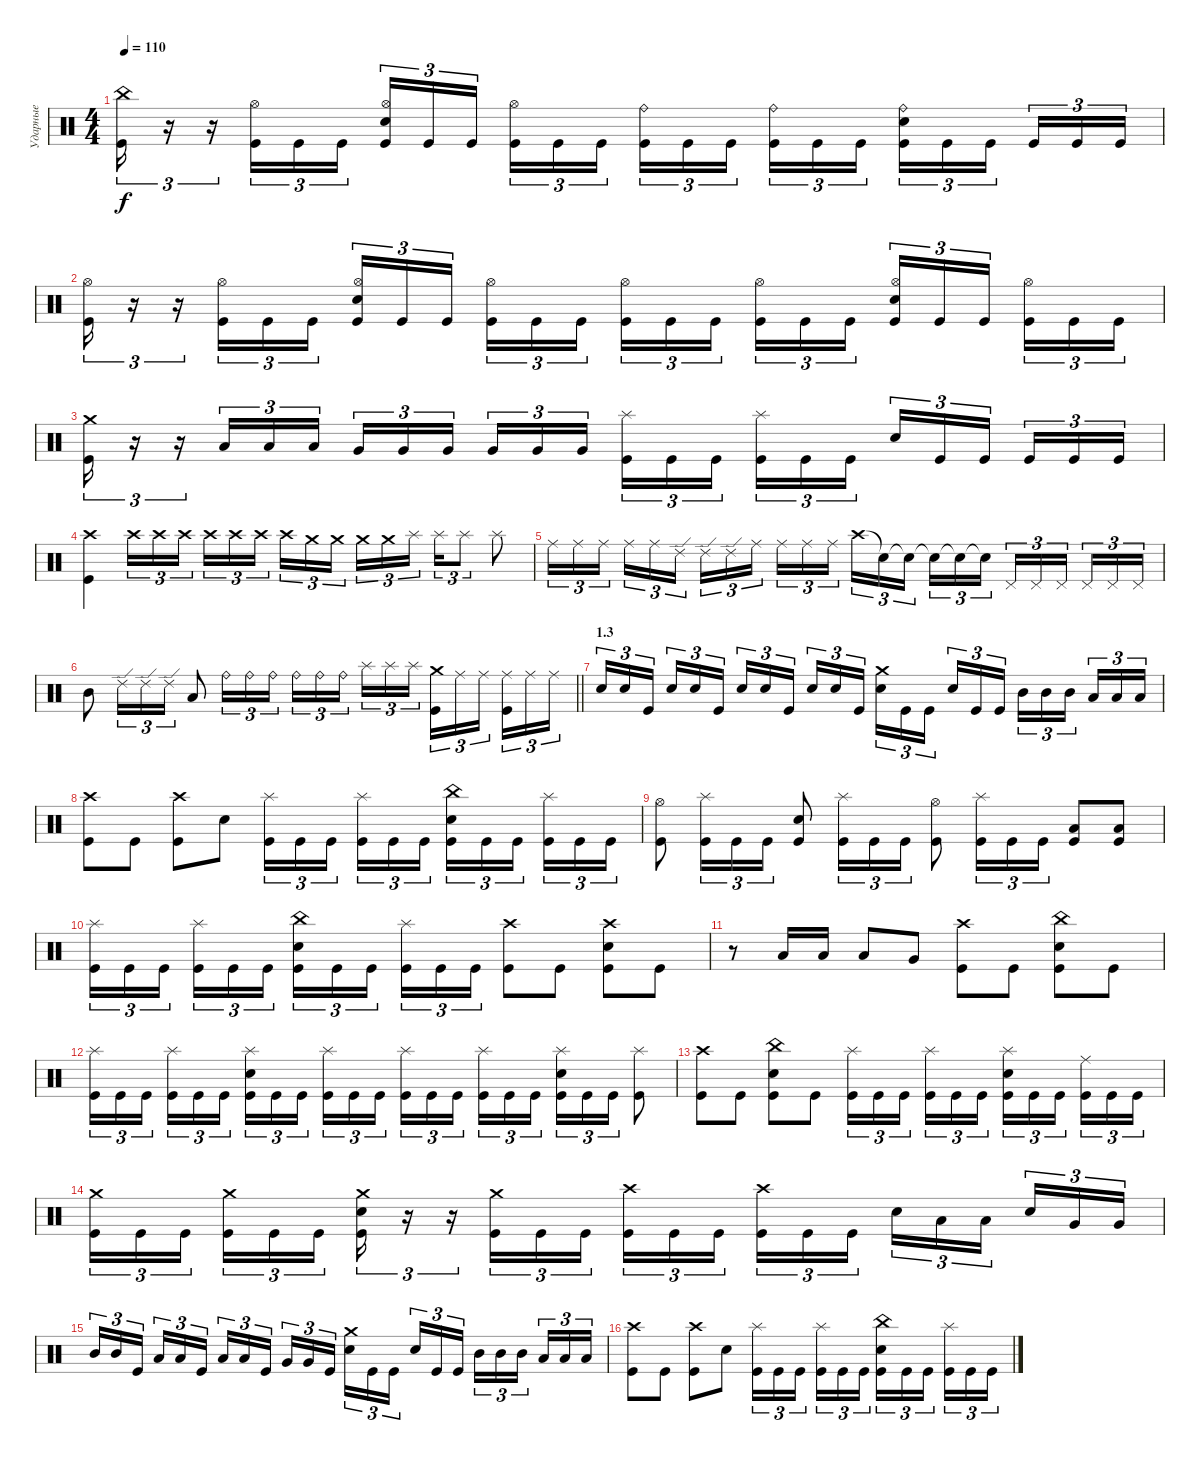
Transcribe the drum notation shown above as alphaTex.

\track ("Ударные" "Ударные") {instrument percussion}
\staff {score}
\articulation defaults
\ts (4 4)
\tempo 110
\clef neutral
\ks c
("China (hit)" "Kick (hit)").16{tu (3 2) dy f} r.16{tu (3 2)} r.16{tu (3 2)} ("Hi-Hat (open)" "Kick (hit)").16{tu (3 2)} "Kick (hit)".16{tu (3 2)} "Kick (hit)".16{tu (3 2)} ("Hi-Hat (open)" "Electric Snare (hit)" "Kick (hit)").16{tu (3 2)} "Kick (hit)".16{tu (3 2)} "Kick (hit)".16{tu (3 2) beam splitsecondary} ("Hi-Hat (open)" "Kick (hit)").16{tu (3 2)} "Kick (hit)".16{tu (3 2)} "Kick (hit)".16{tu (3 2)} ("Ride (bell)" "Kick (hit)").16{tu (3 2)} "Kick (hit)".16{tu (3 2)} "Kick (hit)".16{tu (3 2) beam splitsecondary} ("Ride (bell)" "Kick (hit)").16{tu (3 2)} "Kick (hit)".16{tu (3 2)} "Kick (hit)".16{tu (3 2)} ("Ride (bell)" "Electric Snare (hit)" "Kick (hit)").16{tu (3 2)} "Kick (hit)".16{tu (3 2)} "Kick (hit)".16{tu (3 2) beam splitsecondary} "Kick (hit)".16{tu (3 2)} "Kick (hit)".16{tu (3 2)} "Kick (hit)".16{tu (3 2)} |
("Hi-Hat (open)" "Kick (hit)").16{tu (3 2)} r.16{tu (3 2)} r.16{tu (3 2)} ("Hi-Hat (open)" "Kick (hit)").16{tu (3 2)} "Kick (hit)".16{tu (3 2)} "Kick (hit)".16{tu (3 2)} ("Hi-Hat (open)" "Electric Snare (hit)" "Kick (hit)").16{tu (3 2)} "Kick (hit)".16{tu (3 2)} "Kick (hit)".16{tu (3 2) beam splitsecondary} ("Hi-Hat (open)" "Kick (hit)").16{tu (3 2)} "Kick (hit)".16{tu (3 2)} "Kick (hit)".16{tu (3 2)} ("Hi-Hat (open)" "Kick (hit)").16{tu (3 2)} "Kick (hit)".16{tu (3 2)} "Kick (hit)".16{tu (3 2) beam splitsecondary} ("Hi-Hat (open)" "Kick (hit)").16{tu (3 2)} "Kick (hit)".16{tu (3 2)} "Kick (hit)".16{tu (3 2)} ("Hi-Hat (open)" "Electric Snare (hit)" "Kick (hit)").16{tu (3 2)} "Kick (hit)".16{tu (3 2)} "Kick (hit)".16{tu (3 2) beam splitsecondary} ("Hi-Hat (open)" "Kick (hit)").16{tu (3 2)} "Kick (hit)".16{tu (3 2)} "Kick (hit)".16{tu (3 2)} |
("Crash medium (hit)" "Kick (hit)").16{tu (3 2)} r.16{tu (3 2)} r.16{tu (3 2)} "Low Tom (hit)".16{tu (3 2)} "Low Tom (hit)".16{tu (3 2)} "Low Tom (hit)".16{tu (3 2)} "Very Low Tom (hit)".16{tu (3 2)} "Very Low Tom (hit)".16{tu (3 2)} "Very Low Tom (hit)".16{tu (3 2) beam splitsecondary} "Very Low Tom (hit)".16{tu (3 2)} "Very Low Tom (hit)".16{tu (3 2)} "Very Low Tom (hit)".16{tu (3 2)} ("Splash (hit)" "Kick (hit)").16{tu (3 2)} "Kick (hit)".16{tu (3 2)} "Kick (hit)".16{tu (3 2) beam splitsecondary} ("Splash (hit)" "Kick (hit)").16{tu (3 2)} "Kick (hit)".16{tu (3 2)} "Kick (hit)".16{tu (3 2)} "Electric Snare (hit)".16{tu (3 2)} "Kick (hit)".16{tu (3 2)} "Kick (hit)".16{tu (3 2) beam splitsecondary} "Kick (hit)".16{tu (3 2)} "Kick (hit)".16{tu (3 2)} "Kick (hit)".16{tu (3 2)} |
("Crash high (hit)" "Kick (hit)").4 "Crash high (hit)".16{tu (3 2)} "Crash high (hit)".16{tu (3 2)} "Crash high (hit)".16{tu (3 2) beam splitsecondary} "Crash high (hit)".16{tu (3 2)} "Crash high (hit)".16{tu (3 2)} "Crash high (hit)".16{tu (3 2)} "Crash high (hit)".16{tu (3 2)} "Crash medium (hit)".16{tu (3 2)} "Crash medium (hit)".16{tu (3 2) beam splitsecondary} "Crash medium (hit)".16{tu (3 2)} "Crash medium (hit)".16{tu (3 2)} "Splash (hit)".16{tu (3 2)} "Splash (hit)".16{tu (3 2)} "Splash (hit)".8{tu (3 2)} "Splash (hit)".8 |
"Ride (middle)".16{tu (3 2)} "Ride (middle)".16{tu (3 2)} "Ride (middle)".16{tu (3 2) beam splitsecondary} "Ride (middle)".16{tu (3 2)} "Ride (middle)".16{tu (3 2)} "Ride (edge) 2".16{tu (3 2)} "Ride (edge) 2".16{tu (3 2)} "Ride (edge) 2".16{tu (3 2)} "Ride (middle)".16{tu (3 2) beam splitsecondary} "Ride (middle)".16{tu (3 2)} "Ride (middle)".16{tu (3 2)} "Ride (middle)".16{tu (3 2)} "Crash high (hit)".16{tu (3 2)} "Snare (hit)"{t}.16{tu (3 2)} "Snare (hit)"{t}.16{tu (3 2) beam splitsecondary} "Snare (hit)"{t}.16{tu (3 2)} "Snare (hit)"{t}.16{tu (3 2)} "Snare (hit)"{t}.16{tu (3 2)} "Pedal Hi-Hat (hit)".16{tu (3 2)} "Pedal Hi-Hat (hit)".16{tu (3 2)} "Pedal Hi-Hat (hit)".16{tu (3 2) beam splitsecondary} "Pedal Hi-Hat (hit)".16{tu (3 2)} "Pedal Hi-Hat (hit)".16{tu (3 2)} "Pedal Hi-Hat (hit)".16{tu (3 2)} |
\barLineRight lightlight "Mid Tom (hit)".8 "Ride (edge) 2".16{tu (3 2)} "Ride (edge) 2".16{tu (3 2)} "Ride (edge) 2".16{tu (3 2)} "Low Tom (hit)".8 "Ride (bell)".16{tu (3 2)} "Ride (bell)".16{tu (3 2)} "Ride (bell)".16{tu (3 2)} "Ride (bell)".16{tu (3 2)} "Ride (bell)".16{tu (3 2)} "Ride (bell)".16{tu (3 2) beam splitsecondary} "Splash (hit)".16{tu (3 2)} "Splash (hit)".16{tu (3 2)} "Splash (hit)".16{tu (3 2)}
("Crash medium (hit)" "Kick (hit)").16{tu (3 2)} "Ride (middle)".16{tu (3 2)} "Ride (middle)".16{tu (3 2) beam splitsecondary} ("Ride (middle)" "Kick (hit)").16{tu (3 2)} "Ride (middle)".16{tu (3 2)} "Ride (middle)".16{tu (3 2)} |
\section ("" "1.3")
"Electric Snare (hit)".16{tu (3 2)} "Electric Snare (hit)".16{tu (3 2)} "Kick (hit)".16{tu (3 2) beam splitsecondary} "Electric Snare (hit)".16{tu (3 2)} "Electric Snare (hit)".16{tu (3 2)} "Kick (hit)".16{tu (3 2)} "Electric Snare (hit)".16{tu (3 2)} "Electric Snare (hit)".16{tu (3 2)} "Kick (hit)".16{tu (3 2) beam splitsecondary} "Electric Snare (hit)".16{tu (3 2)} "Electric Snare (hit)".16{tu (3 2)} "Kick (hit)".16{tu (3 2)} ("Crash medium (hit)" "Electric Snare (hit)").16{tu (3 2)} "Kick (hit)".16{tu (3 2)} "Kick (hit)".16{tu (3 2) beam splitsecondary} "Electric Snare (hit)".16{tu (3 2)} "Kick (hit)".16{tu (3 2)} "Kick (hit)".16{tu (3 2)} "Mid Tom (hit)".16{tu (3 2)} "Mid Tom (hit)".16{tu (3 2)} "Mid Tom (hit)".16{tu (3 2) beam splitsecondary} "Low Tom (hit)".16{tu (3 2)} "Low Tom (hit)".16{tu (3 2)} "Low Tom (hit)".16{tu (3 2)} |
("Crash high (hit)" "Kick (hit)").8 "Kick (hit)".8 ("Crash high (hit)" "Kick (hit)").8 "Electric Snare (hit)".8 ("Splash (hit)" "Kick (hit)").16{tu (3 2)} "Kick (hit)".16{tu (3 2)} "Kick (hit)".16{tu (3 2) beam splitsecondary} ("Splash (hit)" "Kick (hit)").16{tu (3 2)} "Kick (hit)".16{tu (3 2)} "Kick (hit)".16{tu (3 2)} ("China (hit)" "Electric Snare (hit)" "Kick (hit)").16{tu (3 2)} "Kick (hit)".16{tu (3 2)} "Kick (hit)".16{tu (3 2) beam splitsecondary} ("Splash (hit)" "Kick (hit)").16{tu (3 2)} "Kick (hit)".16{tu (3 2)} "Kick (hit)".16{tu (3 2)} |
("Hi-Hat (open)" "Kick (hit)").8 ("Splash (hit)" "Kick (hit)").16{tu (3 2)} "Kick (hit)".16{tu (3 2)} "Kick (hit)".16{tu (3 2)} ("Electric Snare (hit)" "Kick (hit)").8 ("Splash (hit)" "Kick (hit)").16{tu (3 2)} "Kick (hit)".16{tu (3 2)} "Kick (hit)".16{tu (3 2)} ("Hi-Hat (open)" "Kick (hit)").8 ("Splash (hit)" "Kick (hit)").16{tu (3 2)} "Kick (hit)".16{tu (3 2)} "Kick (hit)".16{tu (3 2)} ("Low Floor Tom (hit)" "Kick (hit)").8 ("Low Floor Tom (hit)" "Kick (hit)").8 |
("Splash (hit)" "Kick (hit)").16{tu (3 2)} "Kick (hit)".16{tu (3 2)} "Kick (hit)".16{tu (3 2) beam splitsecondary} ("Splash (hit)" "Kick (hit)").16{tu (3 2)} "Kick (hit)".16{tu (3 2)} "Kick (hit)".16{tu (3 2)} ("China (hit)" "Electric Snare (hit)" "Kick (hit)").16{tu (3 2)} "Kick (hit)".16{tu (3 2)} "Kick (hit)".16{tu (3 2) beam splitsecondary} ("Splash (hit)" "Kick (hit)").16{tu (3 2)} "Kick (hit)".16{tu (3 2)} "Kick (hit)".16{tu (3 2)} ("Crash high (hit)" "Kick (hit)").8 "Kick (hit)".8 ("Crash high (hit)" "Electric Snare (hit)" "Kick (hit)").8 "Kick (hit)".8 |
r.8 "Low Tom (hit)".16 "Low Tom (hit)".16 "Low Tom (hit)".8 "Very Low Tom (hit)".8 ("Crash high (hit)" "Kick (hit)").8 "Kick (hit)".8 ("China (hit)" "Electric Snare (hit)" "Kick (hit)").8 "Kick (hit)".8 |
("Splash (hit)" "Kick (hit)").16{tu (3 2)} "Kick (hit)".16{tu (3 2)} "Kick (hit)".16{tu (3 2) beam splitsecondary} ("Splash (hit)" "Kick (hit)").16{tu (3 2)} "Kick (hit)".16{tu (3 2)} "Kick (hit)".16{tu (3 2)} ("Splash (hit)" "Electric Snare (hit)" "Kick (hit)").16{tu (3 2)} "Kick (hit)".16{tu (3 2)} "Kick (hit)".16{tu (3 2) beam splitsecondary} ("Splash (hit)" "Kick (hit)").16{tu (3 2)} "Kick (hit)".16{tu (3 2)} "Kick (hit)".16{tu (3 2)} ("Splash (hit)" "Kick (hit)").16{tu (3 2)} "Kick (hit)".16{tu (3 2)} "Kick (hit)".16{tu (3 2) beam splitsecondary} ("Splash (hit)" "Kick (hit)").16{tu (3 2)} "Kick (hit)".16{tu (3 2)} "Kick (hit)".16{tu (3 2)} ("Splash (hit)" "Electric Snare (hit)" "Kick (hit)").16{tu (3 2)} "Kick (hit)".16{tu (3 2)} "Kick (hit)".16{tu (3 2)} ("Splash (hit)" "Kick (hit)").8 |
("Crash high (hit)" "Kick (hit)").8 "Kick (hit)".8 ("China (hit)" "Electric Snare (hit)" "Kick (hit)").8 "Kick (hit)".8 ("Splash (hit)" "Kick (hit)").16{tu (3 2)} "Kick (hit)".16{tu (3 2)} "Kick (hit)".16{tu (3 2) beam splitsecondary} ("Splash (hit)" "Kick (hit)").16{tu (3 2)} "Kick (hit)".16{tu (3 2)} "Kick (hit)".16{tu (3 2)} ("Splash (hit)" "Electric Snare (hit)" "Kick (hit)").16{tu (3 2)} "Kick (hit)".16{tu (3 2)} "Kick (hit)".16{tu (3 2) beam splitsecondary} ("Ride (middle)" "Kick (hit)").16{tu (3 2)} "Kick (hit)".16{tu (3 2)} "Kick (hit)".16{tu (3 2)} |
("Crash medium (hit)" "Kick (hit)").16{tu (3 2)} "Kick (hit)".16{tu (3 2)} "Kick (hit)".16{tu (3 2) beam splitsecondary} ("Crash medium (hit)" "Kick (hit)").16{tu (3 2)} "Kick (hit)".16{tu (3 2)} "Kick (hit)".16{tu (3 2)} ("Crash medium (hit)" "Electric Snare (hit)" "Kick (hit)").16{tu (3 2)} r.16{tu (3 2)} r.16{tu (3 2)} ("Crash medium (hit)" "Kick (hit)").16{tu (3 2)} "Kick (hit)".16{tu (3 2)} "Kick (hit)".16{tu (3 2)} ("Crash high (hit)" "Kick (hit)").16{tu (3 2)} "Kick (hit)".16{tu (3 2)} "Kick (hit)".16{tu (3 2) beam splitsecondary} ("Crash high (hit)" "Kick (hit)").16{tu (3 2)} "Kick (hit)".16{tu (3 2)} "Kick (hit)".16{tu (3 2)} "Electric Snare (hit)".16{tu (3 2)} "Low Tom (hit)".16{tu (3 2)} "Low Tom (hit)".16{tu (3 2) beam splitsecondary} "Electric Snare (hit)".16{tu (3 2)} "Very Low Tom (hit)".16{tu (3 2)} "Very Low Tom (hit)".16{tu (3 2)} |
"Mid Tom (hit)".16{tu (3 2)} "Mid Tom (hit)".16{tu (3 2)} "Kick (hit)".16{tu (3 2) beam splitsecondary} "Low Tom (hit)".16{tu (3 2)} "Low Tom (hit)".16{tu (3 2)} "Kick (hit)".16{tu (3 2)} "Low Tom (hit)".16{tu (3 2)} "Low Tom (hit)".16{tu (3 2)} "Kick (hit)".16{tu (3 2) beam splitsecondary} "Very Low Tom (hit)".16{tu (3 2)} "Very Low Tom (hit)".16{tu (3 2)} "Kick (hit)".16{tu (3 2)} ("Crash medium (hit)" "Electric Snare (hit)").16{tu (3 2)} "Kick (hit)".16{tu (3 2)} "Kick (hit)".16{tu (3 2) beam splitsecondary} "Electric Snare (hit)".16{tu (3 2)} "Kick (hit)".16{tu (3 2)} "Kick (hit)".16{tu (3 2)} "Mid Tom (hit)".16{tu (3 2)} "Mid Tom (hit)".16{tu (3 2)} "Mid Tom (hit)".16{tu (3 2) beam splitsecondary} "Low Tom (hit)".16{tu (3 2)} "Low Tom (hit)".16{tu (3 2)} "Low Tom (hit)".16{tu (3 2)} |
("Crash high (hit)" "Kick (hit)").8 "Kick (hit)".8 ("Crash high (hit)" "Kick (hit)").8 "Electric Snare (hit)".8 ("Splash (hit)" "Kick (hit)").16{tu (3 2)} "Kick (hit)".16{tu (3 2)} "Kick (hit)".16{tu (3 2) beam splitsecondary} ("Splash (hit)" "Kick (hit)").16{tu (3 2)} "Kick (hit)".16{tu (3 2)} "Kick (hit)".16{tu (3 2)} ("China (hit)" "Electric Snare (hit)" "Kick (hit)").16{tu (3 2)} "Kick (hit)".16{tu (3 2)} "Kick (hit)".16{tu (3 2) beam splitsecondary} ("Splash (hit)" "Kick (hit)").16{tu (3 2)} "Kick (hit)".16{tu (3 2)} "Kick (hit)".16{tu (3 2)}
